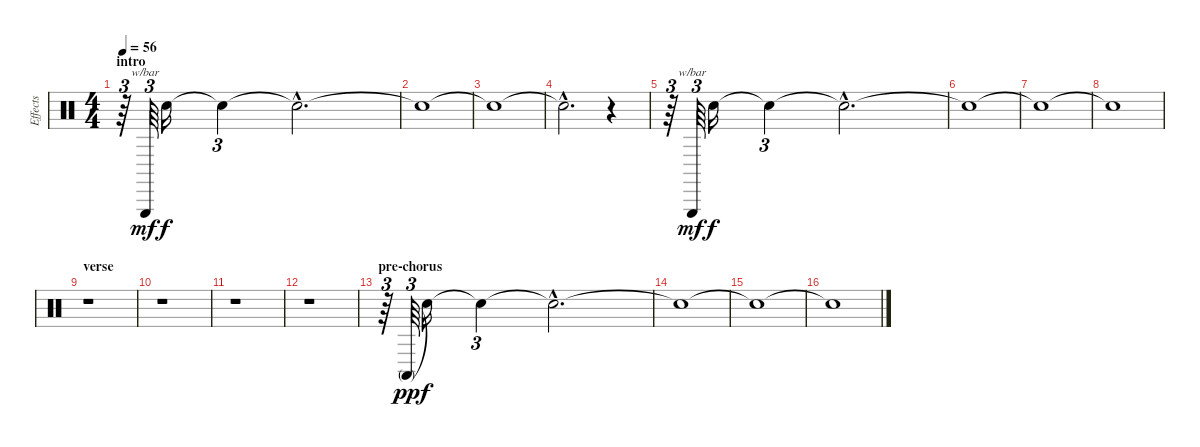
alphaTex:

\track ("Effects" "Effects") {instrument percussion}
\staff {score}
\articulation defaults
\ts (4 4)
\section ("" "intro")
\tempo 56
\clef neutral
\ks c
r.64{tu (3 2) dy mf} "Triangle (hit)".64{tu (3 2) tbe (custom default 0 0 10 -12 14 -4 19 -8 24 0 26 -24 30 -4 38 -10 44 -8 51 0 60 0)} "Snare (hit)"{t}.16{dy f} "Snare (hit)"{t}.4{tu (3 2)} "Snare (hit)"{hac t}.2{d} |
"Snare (hit)"{t}.1 |
"Snare (hit)"{t}.1 |
"Snare (hit)"{hac t}.2{d} r.4 |
r.64{tu (3 2)} "Triangle (hit)".64{tu (3 2) tbe (custom default 0 0 10 2 14 12 19 0 24 10 26 0 30 -4 38 8 44 -8 51 0 55 14 57 0 60 0) dy mf} "Snare (hit)"{t}.16{dy f} "Snare (hit)"{t}.4{tu (3 2)} "Snare (hit)"{hac t}.2{d} |
"Snare (hit)"{t}.1 |
"Snare (hit)"{t}.1 |
"Snare (hit)"{t}.1 |
\section ("" "verse")
r.1 |
r.1 |
r.1 |
r.1 |
\section ("" "pre-chorus")
r.64{tu (3 2)} "Conga high (mute)".64{tu (3 2) dy pp} "Snare (hit)"{t}.16{dy f} "Snare (hit)"{t}.4{tu (3 2)} "Snare (hit)"{hac t}.2{d} |
"Snare (hit)"{t}.1 |
"Snare (hit)"{t}.1 |
"Snare (hit)"{t}.1
